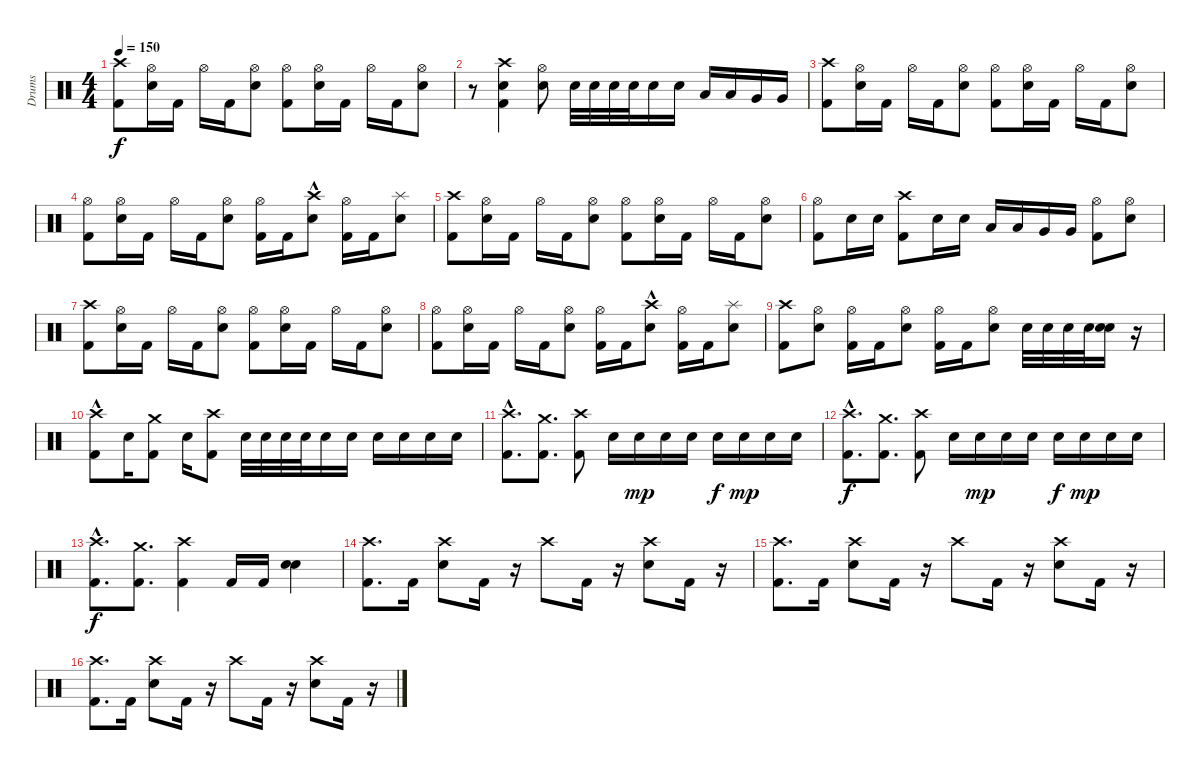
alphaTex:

\track ("Drums" "Drums") {instrument percussion}
\staff {score}
\articulation defaults
\ts (4 4)
\tempo 150
\clef neutral
\ks c
("Crash high (hit)" "Kick (hit) 2").8{dy f} ("Electric Snare (hit)" "Hi-Hat (open)").16 "Kick (hit) 2".16 "Hi-Hat (open)".16 "Kick (hit) 2".16 ("Electric Snare (hit)" "Hi-Hat (open)").8 ("Kick (hit) 2" "Hi-Hat (open)").8 ("Electric Snare (hit)" "Hi-Hat (open)").16 "Kick (hit) 2".16 "Hi-Hat (open)".16 "Kick (hit) 2".16 ("Electric Snare (hit)" "Hi-Hat (open)").8 |
r.8 ("Crash high (hit)" "Kick (hit) 2" "Electric Snare (hit)").4 ("Electric Snare (hit)" "Hi-Hat (open)").8 "Electric Snare (hit)".32 "Electric Snare (hit)".32 "Electric Snare (hit)".32 "Electric Snare (hit)".32 "Electric Snare (hit)".16 "Electric Snare (hit)".16 "Low Tom (hit)".16 "Low Tom (hit)".16 "Very Low Tom (hit)".16 "Very Low Tom (hit)".16 |
("Crash high (hit)" "Kick (hit) 2").8 ("Electric Snare (hit)" "Hi-Hat (open)").16 "Kick (hit) 2".16 "Hi-Hat (open)".16 "Kick (hit) 2".16 ("Electric Snare (hit)" "Hi-Hat (open)").8 ("Kick (hit) 2" "Hi-Hat (open)").8 ("Electric Snare (hit)" "Hi-Hat (open)").16 "Kick (hit) 2".16 "Hi-Hat (open)".16 "Kick (hit) 2".16 ("Electric Snare (hit)" "Hi-Hat (open)").8 |
("Kick (hit) 2" "Hi-Hat (open)").8 ("Electric Snare (hit)" "Hi-Hat (open)").16 "Kick (hit) 2".16 "Hi-Hat (open)".16 "Kick (hit) 2".16 ("Electric Snare (hit)" "Hi-Hat (open)").8 ("Kick (hit) 2" "Hi-Hat (open)").16 "Kick (hit) 2".16 ("Electric Snare (hit)" "Crash high (hit)"{hac}).8 ("Hi-Hat (open)" "Kick (hit) 2").16 "Kick (hit) 2".16 ("Electric Snare (hit)" "Splash (hit)").8 |
("Crash high (hit)" "Kick (hit) 2").8 ("Electric Snare (hit)" "Hi-Hat (open)").16 "Kick (hit) 2".16 "Hi-Hat (open)".16 "Kick (hit) 2".16 ("Electric Snare (hit)" "Hi-Hat (open)").8 ("Kick (hit) 2" "Hi-Hat (open)").8 ("Electric Snare (hit)" "Hi-Hat (open)").16 "Kick (hit) 2".16 "Hi-Hat (open)".16 "Kick (hit) 2".16 ("Electric Snare (hit)" "Hi-Hat (open)").8 |
("Kick (hit) 2" "Hi-Hat (open)").8 "Electric Snare (hit)".16 "Electric Snare (hit)".16 ("Kick (hit) 2" "Crash high (hit)").8 "Electric Snare (hit)".16 "Electric Snare (hit)".16 "Low Tom (hit)".16 "Low Tom (hit)".16 "Very Low Tom (hit)".16 "Very Low Tom (hit)".16 ("Kick (hit) 2" "Hi-Hat (open)").8 ("Electric Snare (hit)" "Hi-Hat (open)").8 |
("Crash high (hit)" "Kick (hit) 2").8 ("Electric Snare (hit)" "Hi-Hat (open)").16 "Kick (hit) 2".16 "Hi-Hat (open)".16 "Kick (hit) 2".16 ("Electric Snare (hit)" "Hi-Hat (open)").8 ("Kick (hit) 2" "Hi-Hat (open)").8 ("Electric Snare (hit)" "Hi-Hat (open)").16 "Kick (hit) 2".16 "Hi-Hat (open)".16 "Kick (hit) 2".16 ("Electric Snare (hit)" "Hi-Hat (open)").8 |
("Kick (hit) 2" "Hi-Hat (open)").8 ("Electric Snare (hit)" "Hi-Hat (open)").16 "Kick (hit) 2".16 "Hi-Hat (open)".16 "Kick (hit) 2".16 ("Electric Snare (hit)" "Hi-Hat (open)").8 ("Kick (hit) 2" "Hi-Hat (open)").16 "Kick (hit) 2".16 ("Electric Snare (hit)" "Crash high (hit)"{hac}).8 ("Hi-Hat (open)" "Kick (hit) 2").16 "Kick (hit) 2".16 ("Electric Snare (hit)" "Splash (hit)").8 |
("Crash high (hit)" "Kick (hit) 2").8 ("Electric Snare (hit)" "Hi-Hat (open)").8 ("Hi-Hat (open)" "Kick (hit) 2").16 "Kick (hit) 2".16 ("Electric Snare (hit)" "Hi-Hat (open)").8 ("Kick (hit) 2" "Hi-Hat (open)").16 "Kick (hit) 2".16 ("Electric Snare (hit)" "Hi-Hat (open)").8 "Electric Snare (hit)".32 "Electric Snare (hit)".32 "Electric Snare (hit)".32 "Electric Snare (hit)".32 ("Electric Snare (hit)" "Electric Snare (hit)").16 r.16 |
("Kick (hit) 2" "Crash high (hit)"{hac}).8 "Electric Snare (hit)".16 ("Kick (hit) 2" "Crash medium (hit)").8 "Electric Snare (hit)".16 ("Kick (hit) 2" "Crash high (hit)").8 "Electric Snare (hit)".32 "Electric Snare (hit)".32 "Electric Snare (hit)".32 "Electric Snare (hit)".32 "Electric Snare (hit)".16 "Electric Snare (hit)".16 "Electric Snare (hit)".16 "Electric Snare (hit)".16 "Electric Snare (hit)".16 "Electric Snare (hit)".16 |
("Kick (hit) 2" "Crash high (hit)"{hac}).8{d} ("Kick (hit) 2" "Crash medium (hit)").8{d} ("Kick (hit) 2" "Crash high (hit)").8 "Electric Snare (hit)".16 "Electric Snare (hit)".16{dy mp} "Electric Snare (hit)".16 "Electric Snare (hit)".16 "Electric Snare (hit)".16{dy f} "Electric Snare (hit)".16{dy mp} "Electric Snare (hit)".16 "Electric Snare (hit)".16 |
("Kick (hit) 2" "Crash high (hit)"{hac}).8{d dy f} ("Kick (hit) 2" "Crash medium (hit)").8{d} ("Kick (hit) 2" "Crash high (hit)").8 "Electric Snare (hit)".16 "Electric Snare (hit)".16{dy mp} "Electric Snare (hit)".16 "Electric Snare (hit)".16 "Electric Snare (hit)".16{dy f} "Electric Snare (hit)".16{dy mp} "Electric Snare (hit)".16 "Electric Snare (hit)".16 |
("Kick (hit) 2" "Crash high (hit)"{hac}).8{d dy f} ("Kick (hit) 2" "Crash medium (hit)").8{d} ("Kick (hit) 2" "Crash high (hit)").4 "Kick (hit) 2".16 "Kick (hit) 2".16 ("Electric Snare (hit)" "Electric Snare (hit)").4 |
("Kick (hit) 2" "Crash high (hit)").8{d} "Kick (hit) 2".16 ("Electric Snare (hit)" "Crash high (hit)").8 "Kick (hit) 2".16 r.16 "Crash high (hit)".8 "Kick (hit) 2".16 r.16 ("Electric Snare (hit)" "Crash high (hit)").8 "Kick (hit) 2".16 r.16 |
("Kick (hit) 2" "Crash high (hit)").8{d} "Kick (hit) 2".16 ("Electric Snare (hit)" "Crash high (hit)").8 "Kick (hit) 2".16 r.16 "Crash high (hit)".8 "Kick (hit) 2".16 r.16 ("Electric Snare (hit)" "Crash high (hit)").8 "Kick (hit) 2".16 r.16 |
("Kick (hit) 2" "Crash high (hit)").8{d} "Kick (hit) 2".16 ("Electric Snare (hit)" "Crash high (hit)").8 "Kick (hit) 2".16 r.16 "Crash high (hit)".8 "Kick (hit) 2".16 r.16 ("Electric Snare (hit)" "Crash high (hit)").8 "Kick (hit) 2".16 r.16
